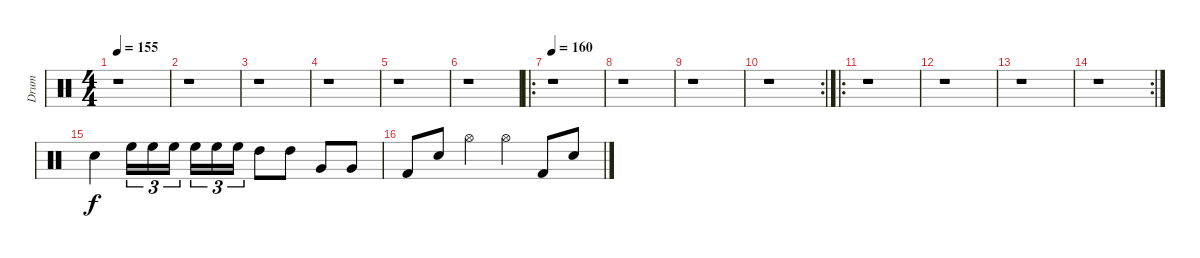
\track ("Drum" "Drum") {instrument percussion}
\staff {score}
\articulation defaults
\ts (4 4)
\tempo 155
\clef neutral
\ks c
r.1{dy f} |
r.1 |
r.1 |
r.1 |
r.1 |
r.1 |
\ro
\tempo 160
r.1 |
r.1 |
r.1 |
\rc 2
r.1 |
\ro
r.1 |
r.1 |
r.1 |
\rc 2
r.1 |
"Snare (hit) 2".4 "High Floor Tom (hit)".16{tu (3 2)} "High Floor Tom (hit)".16{tu (3 2) beam merge} "High Floor Tom (hit)".16{tu (3 2) beam splitsecondary} "High Floor Tom (hit)".16{tu (3 2)} "High Floor Tom (hit)".16{tu (3 2)} "High Floor Tom (hit)".16{tu (3 2)} "High Tom (hit)".8 "High Tom (hit)".8 "Very Low Tom (hit)".8 "Very Low Tom (hit)".8 |
"Kick (hit) 2".8 "Snare (hit) 2".8 "Hi-Hat (open)".4 "Hi-Hat (open)".4 "Kick (hit) 2".8 "Snare (hit) 2".8
